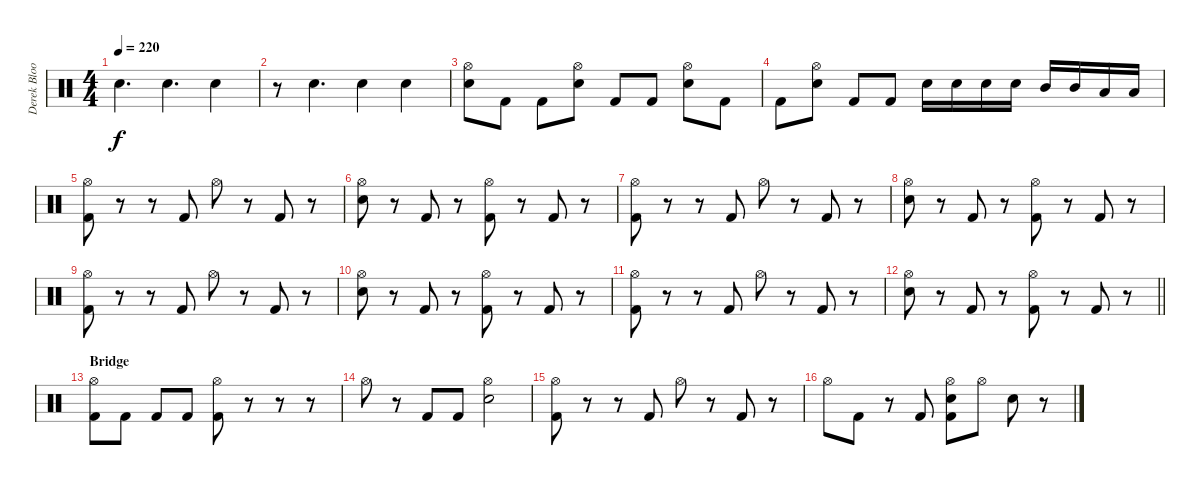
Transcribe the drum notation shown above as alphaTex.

\track ("Derek Bloom - Drums" "Derek Bloo") {instrument percussion}
\staff {score}
\articulation defaults
\ts (4 4)
\tempo 220
\clef neutral
\ks c "Electric Snare (hit)".4{d dy f} "Electric Snare (hit)".4{d} "Electric Snare (hit)".4
|
r.8 "Electric Snare (hit)".4{d} "Electric Snare (hit)".4 "Electric Snare (hit)".4 |
("Hi-Hat (open)" "Electric Snare (hit)").8 "Kick (hit) 2".8 "Kick (hit) 2".8 ("Hi-Hat (open)" "Electric Snare (hit)").8 "Kick (hit) 2".8 "Kick (hit) 2".8 ("Hi-Hat (open)" "Electric Snare (hit)").8 "Kick (hit) 2".8 |
"Kick (hit) 2".8 ("Hi-Hat (open)" "Electric Snare (hit)").8 "Kick (hit) 2".8 "Kick (hit) 2".8 "Electric Snare (hit)".16 "Electric Snare (hit)".16 "Electric Snare (hit)".16 "Electric Snare (hit)".16 "Mid Tom (hit)".16 "Mid Tom (hit)".16 "Low Tom (hit)".16 "Low Tom (hit)".16 |
("Hi-Hat (open)" "Kick (hit) 2").8 r.8 r.8 "Kick (hit) 2".8 "Hi-Hat (open)".8 r.8 "Kick (hit) 2".8 r.8 |
("Hi-Hat (open)" "Electric Snare (hit)").8 r.8 "Kick (hit) 2".8 r.8 ("Hi-Hat (open)" "Kick (hit) 2").8 r.8 "Kick (hit) 2".8 r.8 |
("Hi-Hat (open)" "Kick (hit) 2").8 r.8 r.8 "Kick (hit) 2".8 "Hi-Hat (open)".8 r.8 "Kick (hit) 2".8 r.8 |
("Hi-Hat (open)" "Electric Snare (hit)").8 r.8 "Kick (hit) 2".8 r.8 ("Hi-Hat (open)" "Kick (hit) 2").8 r.8 "Kick (hit) 2".8 r.8 |
("Hi-Hat (open)" "Kick (hit) 2").8 r.8 r.8 "Kick (hit) 2".8 "Hi-Hat (open)".8 r.8 "Kick (hit) 2".8 r.8 |
("Hi-Hat (open)" "Electric Snare (hit)").8 r.8 "Kick (hit) 2".8 r.8 ("Hi-Hat (open)" "Kick (hit) 2").8 r.8 "Kick (hit) 2".8 r.8 |
("Hi-Hat (open)" "Kick (hit) 2").8 r.8 r.8 "Kick (hit) 2".8 "Hi-Hat (open)".8 r.8 "Kick (hit) 2".8 r.8 |
\barLineRight lightlight
("Hi-Hat (open)" "Electric Snare (hit)").8 r.8 "Kick (hit) 2".8 r.8 ("Hi-Hat (open)" "Kick (hit) 2").8 r.8 "Kick (hit) 2".8 r.8 |
\section ("" "Bridge")
("Hi-Hat (open)" "Kick (hit) 2").8 "Kick (hit) 2".8 "Kick (hit) 2".8 "Kick (hit) 2".8 ("Hi-Hat (open)" "Kick (hit) 2").8 r.8 r.8 r.8 |
"Hi-Hat (open)".8 r.8 "Kick (hit) 2".8 "Kick (hit) 2".8 ("Hi-Hat (open)" "Electric Snare (hit)").2 |
("Hi-Hat (open)" "Kick (hit) 2").8 r.8 r.8 "Kick (hit) 2".8 "Hi-Hat (open)".8 r.8 "Kick (hit) 2".8 r.8 |
"Hi-Hat (open)".8 "Kick (hit) 2".8 r.8 "Kick (hit) 2".8 ("Hi-Hat (open)" "Electric Snare (hit)" "Kick (hit) 2").8 "Hi-Hat (open)".8 "Electric Snare (hit)".8 r.8
